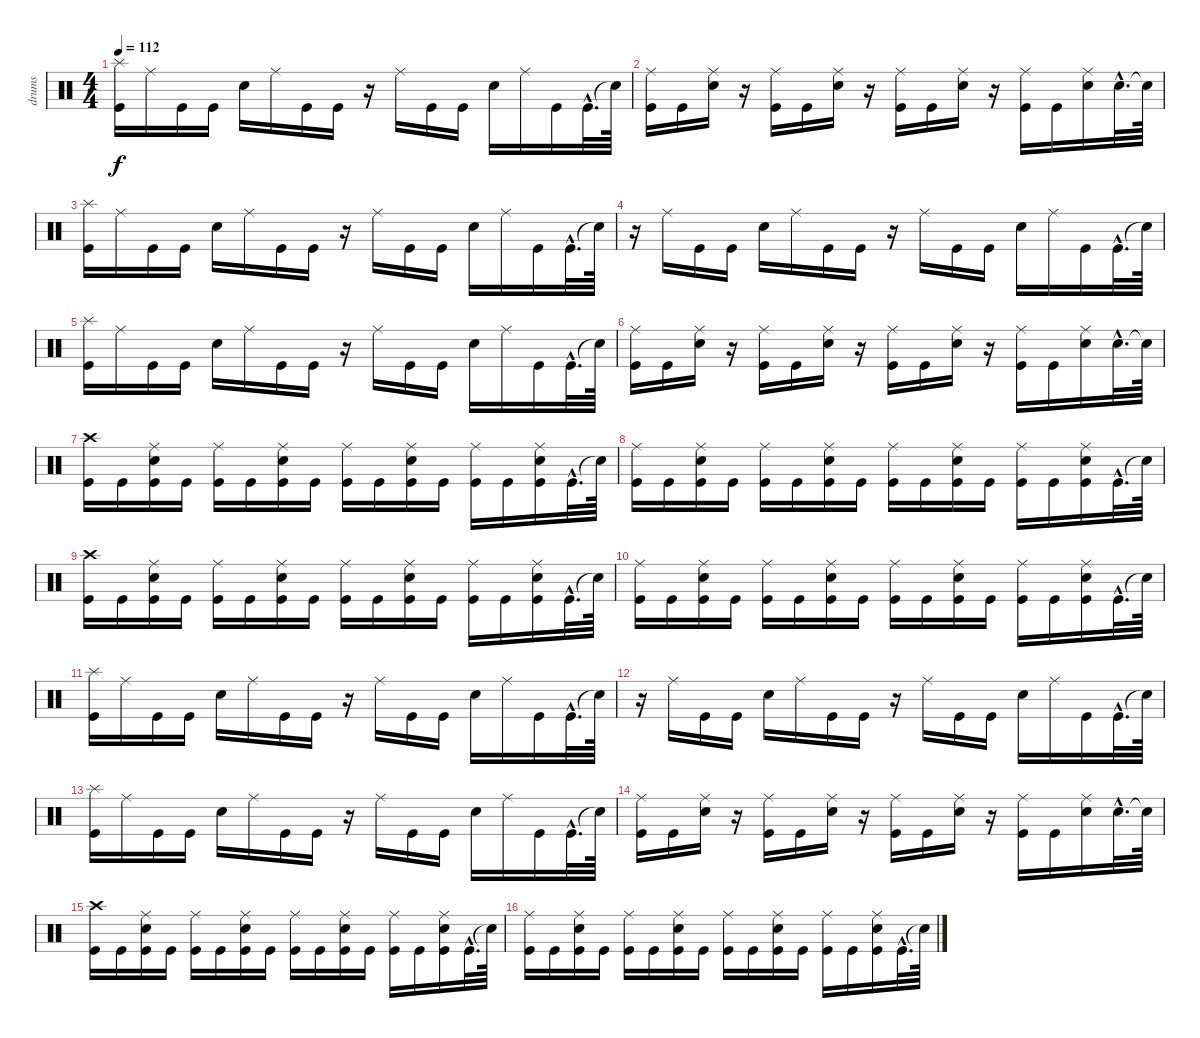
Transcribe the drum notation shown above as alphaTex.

\track ("drums" "drums") {instrument percussion}
\staff {score}
\articulation defaults
\ts (4 4)
\tempo 112
\clef neutral
\ks c
("Splash (hit)" "Kick (hit)").16{dy f} "Ride (middle)".16 "Kick (hit)".16 "Kick (hit)".16 "Electric Snare (hit)".16 "Ride (middle)".16 "Kick (hit)".16 "Kick (hit)".16 r.16 "Ride (middle)".16 "Kick (hit)".16 "Kick (hit)".16 "Electric Snare (hit)".16 "Ride (middle)".16 "Kick (hit)".16 "Kick (hit)"{hac}.32{d} "Snare (hit)"{t}.64 |
("Ride (middle)" "Kick (hit)").16 "Kick (hit)".16 ("Ride (middle)" "Electric Snare (hit)").16 r.16 ("Ride (middle)" "Kick (hit)").16 "Kick (hit)".16 ("Ride (middle)" "Electric Snare (hit)").16 r.16 ("Ride (middle)" "Kick (hit)").16 "Kick (hit)".16 ("Ride (middle)" "Electric Snare (hit)").16 r.16 ("Ride (middle)" "Kick (hit)").16 "Kick (hit)".16 ("Ride (middle)" "Electric Snare (hit)").16 "Electric Snare (hit)"{hac}.32{d} "Snare (hit)"{t}.64 |
("Splash (hit)" "Kick (hit)").16 "Ride (middle)".16 "Kick (hit)".16 "Kick (hit)".16 "Electric Snare (hit)".16 "Ride (middle)".16 "Kick (hit)".16 "Kick (hit)".16 r.16 "Ride (middle)".16 "Kick (hit)".16 "Kick (hit)".16 "Electric Snare (hit)".16 "Ride (middle)".16 "Kick (hit)".16 "Kick (hit)"{hac}.32{d} "Snare (hit)"{t}.64 |
r.16 "Ride (middle)".16 "Kick (hit)".16 "Kick (hit)".16 "Electric Snare (hit)".16 "Ride (middle)".16 "Kick (hit)".16 "Kick (hit)".16 r.16 "Ride (middle)".16 "Kick (hit)".16 "Kick (hit)".16 "Electric Snare (hit)".16 "Ride (middle)".16 "Kick (hit)".16 "Kick (hit)"{hac}.32{d} "Snare (hit)"{t}.64 |
("Splash (hit)" "Kick (hit)").16 "Ride (middle)".16 "Kick (hit)".16 "Kick (hit)".16 "Electric Snare (hit)".16 "Ride (middle)".16 "Kick (hit)".16 "Kick (hit)".16 r.16 "Ride (middle)".16 "Kick (hit)".16 "Kick (hit)".16 "Electric Snare (hit)".16 "Ride (middle)".16 "Kick (hit)".16 "Kick (hit)"{hac}.32{d} "Snare (hit)"{t}.64 |
("Ride (middle)" "Kick (hit)").16 "Kick (hit)".16 ("Ride (middle)" "Electric Snare (hit)").16 r.16 ("Ride (middle)" "Kick (hit)").16 "Kick (hit)".16 ("Ride (middle)" "Electric Snare (hit)").16 r.16 ("Ride (middle)" "Kick (hit)").16 "Kick (hit)".16 ("Ride (middle)" "Electric Snare (hit)").16 r.16 ("Ride (middle)" "Kick (hit)").16 "Kick (hit)".16 ("Ride (middle)" "Electric Snare (hit)").16 "Electric Snare (hit)"{hac}.32{d} "Snare (hit)"{t}.64 |
("Crash high (hit)" "Kick (hit)").16 "Kick (hit)".16 ("Ride (middle)" "Kick (hit)" "Electric Snare (hit)").16 "Kick (hit)".16 ("Ride (middle)" "Kick (hit)").16 "Kick (hit)".16 ("Ride (middle)" "Kick (hit)" "Electric Snare (hit)").16 "Kick (hit)".16 ("Ride (middle)" "Kick (hit)").16 "Kick (hit)".16 ("Ride (middle)" "Kick (hit)" "Electric Snare (hit)").16 "Kick (hit)".16 ("Ride (middle)" "Kick (hit)").16 "Kick (hit)".16 ("Ride (middle)" "Kick (hit)" "Electric Snare (hit)").16 "Kick (hit)"{hac}.32{d} "Snare (hit)"{t}.64 |
("Ride (middle)" "Kick (hit)").16 "Kick (hit)".16 ("Ride (middle)" "Kick (hit)" "Electric Snare (hit)").16 "Kick (hit)".16 ("Ride (middle)" "Kick (hit)").16 "Kick (hit)".16 ("Ride (middle)" "Kick (hit)" "Electric Snare (hit)").16 "Kick (hit)".16 ("Ride (middle)" "Kick (hit)").16 "Kick (hit)".16 ("Ride (middle)" "Kick (hit)" "Electric Snare (hit)").16 "Kick (hit)".16 ("Ride (middle)" "Kick (hit)").16 "Kick (hit)".16 ("Ride (middle)" "Kick (hit)" "Electric Snare (hit)").16 "Kick (hit)"{hac}.32{d} "Snare (hit)"{t}.64 |
("Crash high (hit)" "Kick (hit)").16 "Kick (hit)".16 ("Ride (middle)" "Kick (hit)" "Electric Snare (hit)").16 "Kick (hit)".16 ("Ride (middle)" "Kick (hit)").16 "Kick (hit)".16 ("Ride (middle)" "Kick (hit)" "Electric Snare (hit)").16 "Kick (hit)".16 ("Ride (middle)" "Kick (hit)").16 "Kick (hit)".16 ("Ride (middle)" "Kick (hit)" "Electric Snare (hit)").16 "Kick (hit)".16 ("Ride (middle)" "Kick (hit)").16 "Kick (hit)".16 ("Ride (middle)" "Kick (hit)" "Electric Snare (hit)").16 "Kick (hit)"{hac}.32{d} "Snare (hit)"{t}.64 |
("Ride (middle)" "Kick (hit)").16 "Kick (hit)".16 ("Ride (middle)" "Kick (hit)" "Electric Snare (hit)").16 "Kick (hit)".16 ("Ride (middle)" "Kick (hit)").16 "Kick (hit)".16 ("Ride (middle)" "Kick (hit)" "Electric Snare (hit)").16 "Kick (hit)".16 ("Ride (middle)" "Kick (hit)").16 "Kick (hit)".16 ("Ride (middle)" "Kick (hit)" "Electric Snare (hit)").16 "Kick (hit)".16 ("Ride (middle)" "Kick (hit)").16 "Kick (hit)".16 ("Ride (middle)" "Kick (hit)" "Electric Snare (hit)").16 "Kick (hit)"{hac}.32{d} "Snare (hit)"{t}.64 |
("Splash (hit)" "Kick (hit)").16 "Ride (middle)".16 "Kick (hit)".16 "Kick (hit)".16 "Electric Snare (hit)".16 "Ride (middle)".16 "Kick (hit)".16 "Kick (hit)".16 r.16 "Ride (middle)".16 "Kick (hit)".16 "Kick (hit)".16 "Electric Snare (hit)".16 "Ride (middle)".16 "Kick (hit)".16 "Kick (hit)"{hac}.32{d} "Snare (hit)"{t}.64 |
r.16 "Ride (middle)".16 "Kick (hit)".16 "Kick (hit)".16 "Electric Snare (hit)".16 "Ride (middle)".16 "Kick (hit)".16 "Kick (hit)".16 r.16 "Ride (middle)".16 "Kick (hit)".16 "Kick (hit)".16 "Electric Snare (hit)".16 "Ride (middle)".16 "Kick (hit)".16 "Kick (hit)"{hac}.32{d} "Snare (hit)"{t}.64 |
("Splash (hit)" "Kick (hit)").16 "Ride (middle)".16 "Kick (hit)".16 "Kick (hit)".16 "Electric Snare (hit)".16 "Ride (middle)".16 "Kick (hit)".16 "Kick (hit)".16 r.16 "Ride (middle)".16 "Kick (hit)".16 "Kick (hit)".16 "Electric Snare (hit)".16 "Ride (middle)".16 "Kick (hit)".16 "Kick (hit)"{hac}.32{d} "Snare (hit)"{t}.64 |
("Ride (middle)" "Kick (hit)").16 "Kick (hit)".16 ("Ride (middle)" "Electric Snare (hit)").16 r.16 ("Ride (middle)" "Kick (hit)").16 "Kick (hit)".16 ("Ride (middle)" "Electric Snare (hit)").16 r.16 ("Ride (middle)" "Kick (hit)").16 "Kick (hit)".16 ("Ride (middle)" "Electric Snare (hit)").16 r.16 ("Ride (middle)" "Kick (hit)").16 "Kick (hit)".16 ("Ride (middle)" "Electric Snare (hit)").16 "Electric Snare (hit)"{hac}.32{d} "Snare (hit)"{t}.64 |
("Crash high (hit)" "Kick (hit)").16 "Kick (hit)".16 ("Ride (middle)" "Kick (hit)" "Electric Snare (hit)").16 "Kick (hit)".16 ("Ride (middle)" "Kick (hit)").16 "Kick (hit)".16 ("Ride (middle)" "Kick (hit)" "Electric Snare (hit)").16 "Kick (hit)".16 ("Ride (middle)" "Kick (hit)").16 "Kick (hit)".16 ("Ride (middle)" "Kick (hit)" "Electric Snare (hit)").16 "Kick (hit)".16 ("Ride (middle)" "Kick (hit)").16 "Kick (hit)".16 ("Ride (middle)" "Kick (hit)" "Electric Snare (hit)").16 "Kick (hit)"{hac}.32{d} "Snare (hit)"{t}.64 |
("Ride (middle)" "Kick (hit)").16 "Kick (hit)".16 ("Ride (middle)" "Kick (hit)" "Electric Snare (hit)").16 "Kick (hit)".16 ("Ride (middle)" "Kick (hit)").16 "Kick (hit)".16 ("Ride (middle)" "Kick (hit)" "Electric Snare (hit)").16 "Kick (hit)".16 ("Ride (middle)" "Kick (hit)").16 "Kick (hit)".16 ("Ride (middle)" "Kick (hit)" "Electric Snare (hit)").16 "Kick (hit)".16 ("Ride (middle)" "Kick (hit)").16 "Kick (hit)".16 ("Ride (middle)" "Kick (hit)" "Electric Snare (hit)").16 "Kick (hit)"{hac}.32{d} "Snare (hit)"{t}.64
